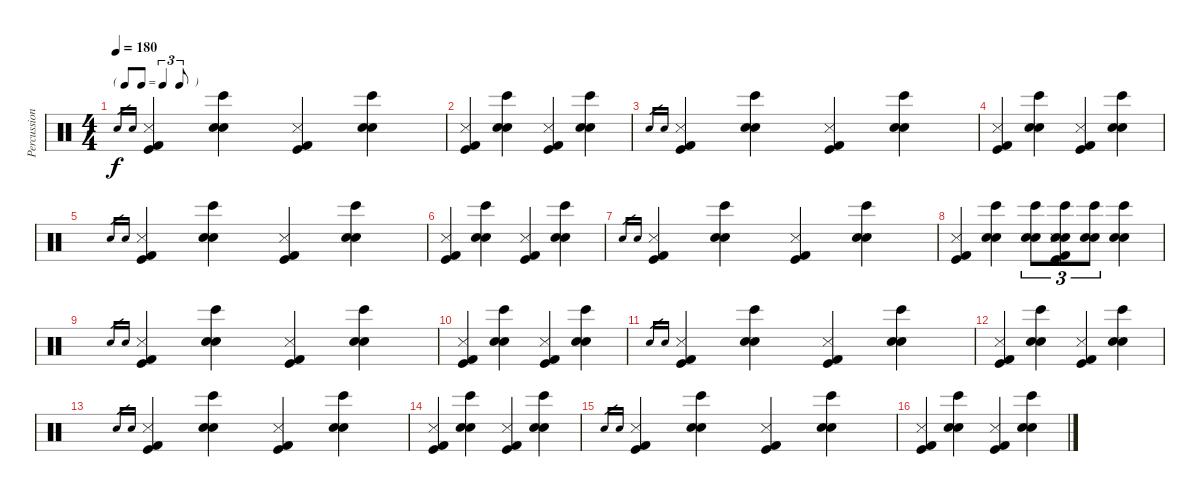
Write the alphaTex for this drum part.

\track ("Percussion" "Percussion") {instrument percussion}
\staff {score}
\articulation defaults
\ts (4 4)
\tf triplet8th
\tempo 180
\clef neutral
\ks c "Electric Snare (hit)".16{gr dy f} "Snare (hit) 2".16{gr}
("Snare (side stick) 3" "Kick (hit)" "Kick (hit) 2").4 ("Bongo High (hit)" "Electric Snare (hit)" "Snare (hit) 2").4 ("Snare (side stick) 3" "Kick (hit)" "Kick (hit) 2").4 ("Bongo High (hit)" "Electric Snare (hit)" "Snare (hit) 2").4 |
("Snare (side stick) 3" "Kick (hit)" "Kick (hit) 2").4 ("Bongo High (hit)" "Electric Snare (hit)" "Snare (hit) 2").4 ("Snare (side stick) 3" "Kick (hit)" "Kick (hit) 2").4 ("Bongo High (hit)" "Electric Snare (hit)" "Snare (hit) 2").4 |
"Electric Snare (hit)".16{gr} "Snare (hit) 2".16{gr} ("Snare (side stick) 3" "Kick (hit)" "Kick (hit) 2").4 ("Bongo High (hit)" "Electric Snare (hit)" "Snare (hit) 2").4 ("Snare (side stick) 3" "Kick (hit)" "Kick (hit) 2").4 ("Bongo High (hit)" "Electric Snare (hit)" "Snare (hit) 2").4 |
("Snare (side stick) 3" "Kick (hit)" "Kick (hit) 2").4 ("Bongo High (hit)" "Electric Snare (hit)" "Snare (hit) 2").4 ("Snare (side stick) 3" "Kick (hit)" "Kick (hit) 2").4 ("Bongo High (hit)" "Electric Snare (hit)" "Snare (hit) 2").4 |
"Electric Snare (hit)".16{gr} "Snare (hit) 2".16{gr} ("Snare (side stick) 3" "Kick (hit)" "Kick (hit) 2").4 ("Bongo High (hit)" "Electric Snare (hit)" "Snare (hit) 2").4 ("Snare (side stick) 3" "Kick (hit)" "Kick (hit) 2").4 ("Bongo High (hit)" "Electric Snare (hit)" "Snare (hit) 2").4 |
("Snare (side stick) 3" "Kick (hit)" "Kick (hit) 2").4 ("Bongo High (hit)" "Electric Snare (hit)" "Snare (hit) 2").4 ("Snare (side stick) 3" "Kick (hit)" "Kick (hit) 2").4 ("Bongo High (hit)" "Electric Snare (hit)" "Snare (hit) 2").4 |
"Electric Snare (hit)".16{gr} "Snare (hit) 2".16{gr} ("Snare (side stick) 3" "Kick (hit)" "Kick (hit) 2").4 ("Bongo High (hit)" "Electric Snare (hit)" "Snare (hit) 2").4 ("Snare (side stick) 3" "Kick (hit)" "Kick (hit) 2").4 ("Bongo High (hit)" "Electric Snare (hit)" "Snare (hit) 2").4 |
("Snare (side stick) 3" "Kick (hit)" "Kick (hit) 2").4 ("Bongo High (hit)" "Electric Snare (hit)" "Snare (hit) 2").4 ("Bongo High (hit)" "Electric Snare (hit)" "Snare (hit) 2").8{tu (3 2)} ("Bongo High (hit)" "Electric Snare (hit)" "Snare (hit) 2" "Snare (side stick) 3" "Kick (hit)" "Kick (hit) 2").8{tu (3 2)} ("Bongo High (hit)" "Electric Snare (hit)" "Snare (hit) 2").8{tu (3 2)} ("Bongo High (hit)" "Electric Snare (hit)" "Snare (hit) 2").4 |
"Electric Snare (hit)".16{gr} "Snare (hit) 2".16{gr} ("Snare (side stick) 3" "Kick (hit)" "Kick (hit) 2").4 ("Bongo High (hit)" "Electric Snare (hit)" "Snare (hit) 2").4 ("Snare (side stick) 3" "Kick (hit)" "Kick (hit) 2").4 ("Bongo High (hit)" "Electric Snare (hit)" "Snare (hit) 2").4 |
("Snare (side stick) 3" "Kick (hit)" "Kick (hit) 2").4 ("Bongo High (hit)" "Electric Snare (hit)" "Snare (hit) 2").4 ("Snare (side stick) 3" "Kick (hit)" "Kick (hit) 2").4 ("Bongo High (hit)" "Electric Snare (hit)" "Snare (hit) 2").4 |
"Electric Snare (hit)".16{gr} "Snare (hit) 2".16{gr} ("Snare (side stick) 3" "Kick (hit)" "Kick (hit) 2").4 ("Bongo High (hit)" "Electric Snare (hit)" "Snare (hit) 2").4 ("Snare (side stick) 3" "Kick (hit)" "Kick (hit) 2").4 ("Bongo High (hit)" "Electric Snare (hit)" "Snare (hit) 2").4 |
("Snare (side stick) 3" "Kick (hit)" "Kick (hit) 2").4 ("Bongo High (hit)" "Electric Snare (hit)" "Snare (hit) 2").4 ("Snare (side stick) 3" "Kick (hit)" "Kick (hit) 2").4 ("Bongo High (hit)" "Electric Snare (hit)" "Snare (hit) 2").4 |
"Electric Snare (hit)".16{gr} "Snare (hit) 2".16{gr} ("Snare (side stick) 3" "Kick (hit)" "Kick (hit) 2").4 ("Bongo High (hit)" "Electric Snare (hit)" "Snare (hit) 2").4 ("Snare (side stick) 3" "Kick (hit)" "Kick (hit) 2").4 ("Bongo High (hit)" "Electric Snare (hit)" "Snare (hit) 2").4 |
("Snare (side stick) 3" "Kick (hit)" "Kick (hit) 2").4 ("Bongo High (hit)" "Electric Snare (hit)" "Snare (hit) 2").4 ("Snare (side stick) 3" "Kick (hit)" "Kick (hit) 2").4 ("Bongo High (hit)" "Electric Snare (hit)" "Snare (hit) 2").4 |
"Electric Snare (hit)".16{gr} "Snare (hit) 2".16{gr} ("Snare (side stick) 3" "Kick (hit)" "Kick (hit) 2").4 ("Bongo High (hit)" "Electric Snare (hit)" "Snare (hit) 2").4 ("Snare (side stick) 3" "Kick (hit)" "Kick (hit) 2").4 ("Bongo High (hit)" "Electric Snare (hit)" "Snare (hit) 2").4 |
("Snare (side stick) 3" "Kick (hit)" "Kick (hit) 2").4 ("Bongo High (hit)" "Electric Snare (hit)" "Snare (hit) 2").4 ("Snare (side stick) 3" "Kick (hit)" "Kick (hit) 2").4 ("Bongo High (hit)" "Electric Snare (hit)" "Snare (hit) 2").4
